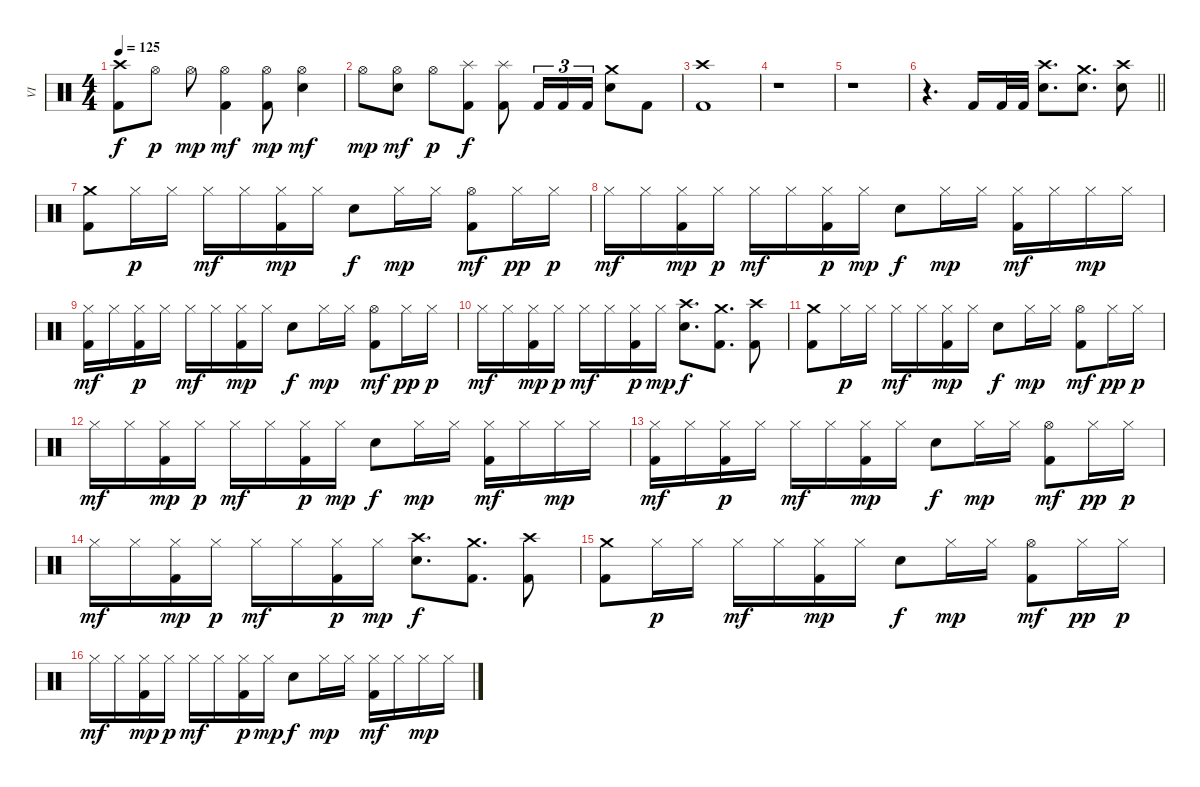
\track ("VI" "VI") {instrument percussion}
\staff {score}
\articulation defaults
\ts (4 4)
\tempo 125
\clef neutral
\ks c
("Crash high (hit)" "Kick (hit) 2").8{dy f} "Hi-Hat (open)".8{dy p} "Hi-Hat (open)".8{dy mp} ("Hi-Hat (open)" "Kick (hit) 2").4{dy mf} ("Hi-Hat (open)" "Kick (hit) 2").8{dy mp} ("Hi-Hat (open)" "Electric Snare (hit)").4{dy mf} |
"Hi-Hat (open)".8{dy mp} ("Hi-Hat (open)" "Electric Snare (hit)").8{dy mf} "Hi-Hat (open)".8{dy p} ("Splash (hit)" "Kick (hit) 2").8{dy f} ("Splash (hit)" "Kick (hit) 2").8 "Kick (hit) 2".16{tu (3 2)} "Kick (hit) 2".16{tu (3 2)} "Kick (hit) 2".16{tu (3 2)} ("Crash medium (hit)" "Electric Snare (hit)").8 "Kick (hit) 2".8 |
("Crash high (hit)" "Kick (hit) 2").1 |
r.1 |
r.1 |
\barLineRight lightlight
r.4{d} "Kick (hit) 2".16 "Kick (hit) 2".32 "Kick (hit) 2".32 ("Crash high (hit)" "Electric Snare (hit)").8{d} ("Crash medium (hit)" "Electric Snare (hit)").8{d} ("Crash high (hit)" "Electric Snare (hit)").8 |
\section ("" "")
("Crash medium (hit)" "Kick (hit) 2").8 "Hi-Hat (closed)".16{dy p} "Hi-Hat (closed)".16 "Hi-Hat (closed)".16{dy mf} "Hi-Hat (closed)".16 ("Hi-Hat (closed)" "Kick (hit) 2").16{dy mp} "Hi-Hat (closed)".16 "Electric Snare (hit)".8{dy f} "Hi-Hat (closed)".16{dy mp} "Hi-Hat (closed)".16 ("Hi-Hat (open)" "Kick (hit) 2").8{dy mf} "Hi-Hat (closed)".16{dy pp} "Hi-Hat (closed)".16{dy p} |
"Hi-Hat (closed)".16{dy mf} "Hi-Hat (closed)".16 ("Hi-Hat (closed)" "Kick (hit) 2").16{dy mp} "Hi-Hat (closed)".16{dy p} "Hi-Hat (closed)".16{dy mf} "Hi-Hat (closed)".16 ("Hi-Hat (closed)" "Kick (hit) 2").16{dy p} "Hi-Hat (closed)".16{dy mp} "Electric Snare (hit)".8{dy f} "Hi-Hat (closed)".16{dy mp} "Hi-Hat (closed)".16 ("Hi-Hat (closed)" "Kick (hit) 2").16{dy mf} "Hi-Hat (closed)".16 "Hi-Hat (closed)".16{dy mp} "Hi-Hat (closed)".16 |
("Hi-Hat (closed)" "Kick (hit) 2").16{dy mf} "Hi-Hat (closed)".16 ("Hi-Hat (closed)" "Kick (hit) 2").16{dy p} "Hi-Hat (closed)".16 "Hi-Hat (closed)".16{dy mf} "Hi-Hat (closed)".16 ("Hi-Hat (closed)" "Kick (hit) 2").16{dy mp} "Hi-Hat (closed)".16 "Electric Snare (hit)".8{dy f} "Hi-Hat (closed)".16{dy mp} "Hi-Hat (closed)".16 ("Hi-Hat (open)" "Kick (hit) 2").8{dy mf} "Hi-Hat (closed)".16{dy pp} "Hi-Hat (closed)".16{dy p} |
"Hi-Hat (closed)".16{dy mf} "Hi-Hat (closed)".16 ("Hi-Hat (closed)" "Kick (hit) 2").16{dy mp} "Hi-Hat (closed)".16{dy p} "Hi-Hat (closed)".16{dy mf} "Hi-Hat (closed)".16 ("Hi-Hat (closed)" "Kick (hit) 2").16{dy p} "Hi-Hat (closed)".16{dy mp} ("Crash high (hit)" "Electric Snare (hit)").8{d dy f} ("Crash medium (hit)" "Kick (hit) 2").8{d} ("Crash high (hit)" "Kick (hit) 2").8 |
("Crash medium (hit)" "Kick (hit) 2").8 "Hi-Hat (closed)".16{dy p} "Hi-Hat (closed)".16 "Hi-Hat (closed)".16{dy mf} "Hi-Hat (closed)".16 ("Hi-Hat (closed)" "Kick (hit) 2").16{dy mp} "Hi-Hat (closed)".16 "Electric Snare (hit)".8{dy f} "Hi-Hat (closed)".16{dy mp} "Hi-Hat (closed)".16 ("Hi-Hat (open)" "Kick (hit) 2").8{dy mf} "Hi-Hat (closed)".16{dy pp} "Hi-Hat (closed)".16{dy p} |
"Hi-Hat (closed)".16{dy mf} "Hi-Hat (closed)".16 ("Hi-Hat (closed)" "Kick (hit) 2").16{dy mp} "Hi-Hat (closed)".16{dy p} "Hi-Hat (closed)".16{dy mf} "Hi-Hat (closed)".16 ("Hi-Hat (closed)" "Kick (hit) 2").16{dy p} "Hi-Hat (closed)".16{dy mp} "Electric Snare (hit)".8{dy f} "Hi-Hat (closed)".16{dy mp} "Hi-Hat (closed)".16 ("Hi-Hat (closed)" "Kick (hit) 2").16{dy mf} "Hi-Hat (closed)".16 "Hi-Hat (closed)".16{dy mp} "Hi-Hat (closed)".16 |
("Hi-Hat (closed)" "Kick (hit) 2").16{dy mf} "Hi-Hat (closed)".16 ("Hi-Hat (closed)" "Kick (hit) 2").16{dy p} "Hi-Hat (closed)".16 "Hi-Hat (closed)".16{dy mf} "Hi-Hat (closed)".16 ("Hi-Hat (closed)" "Kick (hit) 2").16{dy mp} "Hi-Hat (closed)".16 "Electric Snare (hit)".8{dy f} "Hi-Hat (closed)".16{dy mp} "Hi-Hat (closed)".16 ("Hi-Hat (open)" "Kick (hit) 2").8{dy mf} "Hi-Hat (closed)".16{dy pp} "Hi-Hat (closed)".16{dy p} |
"Hi-Hat (closed)".16{dy mf} "Hi-Hat (closed)".16 ("Hi-Hat (closed)" "Kick (hit) 2").16{dy mp} "Hi-Hat (closed)".16{dy p} "Hi-Hat (closed)".16{dy mf} "Hi-Hat (closed)".16 ("Hi-Hat (closed)" "Kick (hit) 2").16{dy p} "Hi-Hat (closed)".16{dy mp} ("Crash high (hit)" "Electric Snare (hit)").8{d dy f} ("Crash medium (hit)" "Kick (hit) 2").8{d} ("Crash high (hit)" "Kick (hit) 2").8 |
("Crash medium (hit)" "Kick (hit) 2").8 "Hi-Hat (closed)".16{dy p} "Hi-Hat (closed)".16 "Hi-Hat (closed)".16{dy mf} "Hi-Hat (closed)".16 ("Hi-Hat (closed)" "Kick (hit) 2").16{dy mp} "Hi-Hat (closed)".16 "Electric Snare (hit)".8{dy f} "Hi-Hat (closed)".16{dy mp} "Hi-Hat (closed)".16 ("Hi-Hat (open)" "Kick (hit) 2").8{dy mf} "Hi-Hat (closed)".16{dy pp} "Hi-Hat (closed)".16{dy p} |
"Hi-Hat (closed)".16{dy mf} "Hi-Hat (closed)".16 ("Hi-Hat (closed)" "Kick (hit) 2").16{dy mp} "Hi-Hat (closed)".16{dy p} "Hi-Hat (closed)".16{dy mf} "Hi-Hat (closed)".16 ("Hi-Hat (closed)" "Kick (hit) 2").16{dy p} "Hi-Hat (closed)".16{dy mp} "Electric Snare (hit)".8{dy f} "Hi-Hat (closed)".16{dy mp} "Hi-Hat (closed)".16 ("Hi-Hat (closed)" "Kick (hit) 2").16{dy mf} "Hi-Hat (closed)".16 "Hi-Hat (closed)".16{dy mp} "Hi-Hat (closed)".16
